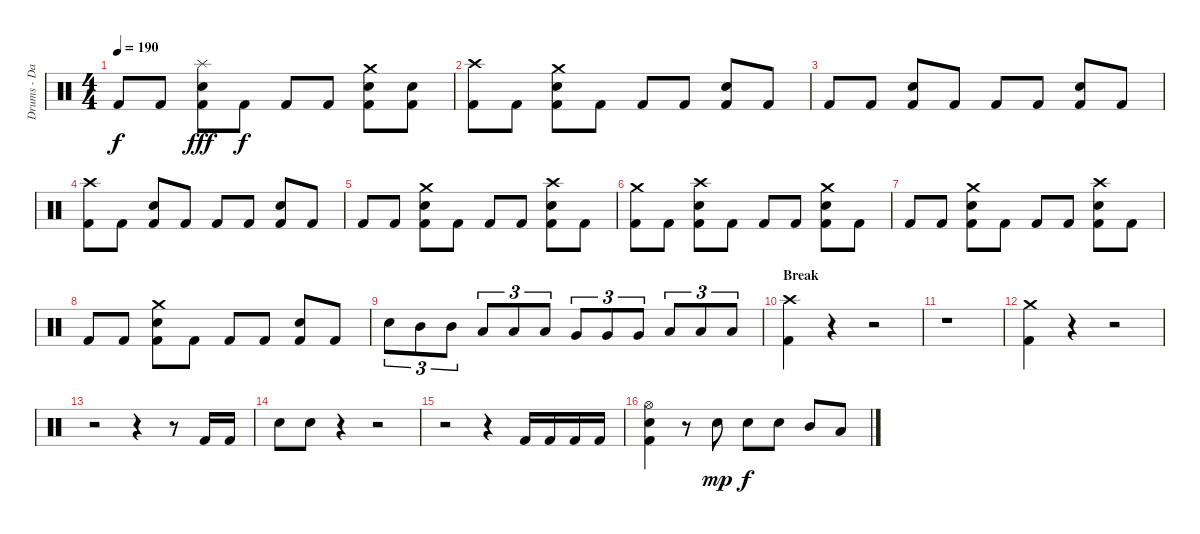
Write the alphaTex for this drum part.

\track ("Drums - Daniel Zimmermann" "Drums - Da") {instrument percussion}
\staff {score}
\articulation defaults
\ts (4 4)
\tempo 190
\clef neutral
\ks c "Kick (hit) 2".8{dy f} "Kick (hit) 2".8
("Kick (hit) 2" "Electric Snare (hit)" "Splash (hit)").8{dy fff} "Kick (hit) 2".8{dy f} "Kick (hit) 2".8 "Kick (hit) 2".8 ("Kick (hit) 2" "Electric Snare (hit)" "Crash medium (hit)").8 ("Kick (hit) 2" "Electric Snare (hit)").8 |
("Kick (hit) 2" "Crash high (hit)").8 "Kick (hit) 2".8 ("Kick (hit) 2" "Electric Snare (hit)" "Crash medium (hit)").8 "Kick (hit) 2".8 "Kick (hit) 2".8 "Kick (hit) 2".8 ("Kick (hit) 2" "Electric Snare (hit)").8 "Kick (hit) 2".8 |
"Kick (hit) 2".8 "Kick (hit) 2".8 ("Kick (hit) 2" "Electric Snare (hit)").8 "Kick (hit) 2".8 "Kick (hit) 2".8 "Kick (hit) 2".8 ("Kick (hit) 2" "Electric Snare (hit)").8 "Kick (hit) 2".8 |
("Kick (hit) 2" "Crash high (hit)").8 "Kick (hit) 2".8 ("Kick (hit) 2" "Electric Snare (hit)").8 "Kick (hit) 2".8 "Kick (hit) 2".8 "Kick (hit) 2".8 ("Kick (hit) 2" "Electric Snare (hit)").8 "Kick (hit) 2".8 |
"Kick (hit) 2".8 "Kick (hit) 2".8 ("Kick (hit) 2" "Electric Snare (hit)" "Crash medium (hit)").8 "Kick (hit) 2".8 "Kick (hit) 2".8 "Kick (hit) 2".8 ("Kick (hit) 2" "Electric Snare (hit)" "Crash high (hit)").8 "Kick (hit) 2".8 |
("Kick (hit) 2" "Crash medium (hit)").8 "Kick (hit) 2".8 ("Kick (hit) 2" "Electric Snare (hit)" "Crash high (hit)").8 "Kick (hit) 2".8 "Kick (hit) 2".8 "Kick (hit) 2".8 ("Kick (hit) 2" "Electric Snare (hit)" "Crash medium (hit)").8 "Kick (hit) 2".8 |
"Kick (hit) 2".8 "Kick (hit) 2".8 ("Kick (hit) 2" "Electric Snare (hit)" "Crash medium (hit)").8 "Kick (hit) 2".8 "Kick (hit) 2".8 "Kick (hit) 2".8 ("Kick (hit) 2" "Electric Snare (hit)" "Crash high (hit)").8 "Kick (hit) 2".8 |
"Kick (hit) 2".8 "Kick (hit) 2".8 ("Kick (hit) 2" "Electric Snare (hit)" "Crash medium (hit)").8 "Kick (hit) 2".8 "Kick (hit) 2".8 "Kick (hit) 2".8 ("Kick (hit) 2" "Electric Snare (hit)").8 "Kick (hit) 2".8 |
"Electric Snare (hit)".8{tu (3 2)} "Mid Tom (hit)".8{tu (3 2)} "Mid Tom (hit)".8{tu (3 2)} "Low Tom (hit)".8{tu (3 2)} "Low Tom (hit)".8{tu (3 2)} "Low Tom (hit)".8{tu (3 2)} "Very Low Tom (hit)".8{tu (3 2)} "Very Low Tom (hit)".8{tu (3 2)} "Very Low Tom (hit)".8{tu (3 2)} "Low Floor Tom (hit)".8{tu (3 2)} "Low Floor Tom (hit)".8{tu (3 2)} "Low Floor Tom (hit)".8{tu (3 2)} |
\section ("" "Break")
("Kick (hit) 2" "Crash high (hit)").4 r.4 r.2 |
r.1 |
("Kick (hit) 2" "Crash medium (hit)").4 r.4 r.2 |
r.2 r.4 r.8 "Kick (hit) 2".16 "Kick (hit) 2".16 |
"Electric Snare (hit)".8 "Electric Snare (hit)".8 r.4 r.2 |
r.2 r.4 "Kick (hit) 2".16 "Kick (hit) 2".16 "Kick (hit) 2".16 "Kick (hit) 2".16 |
("Kick (hit) 2" "Electric Snare (hit)" "Hi-Hat (open)").4 r.8 "Electric Snare (hit)".8{dy mp} "Electric Snare (hit)".8{dy f} "Electric Snare (hit)".8 "Mid Tom (hit)".8 "Low Tom (hit)".8
